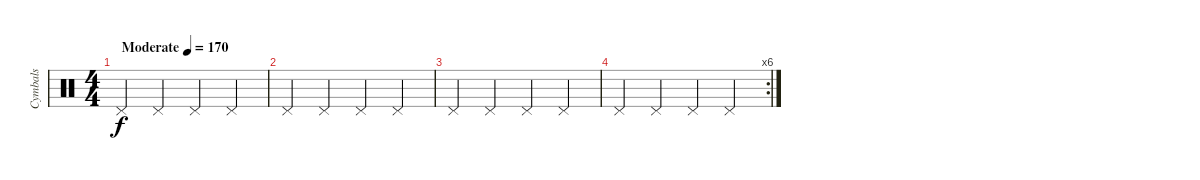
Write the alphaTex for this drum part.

\track ("Cymbals" "Cymbals") {instrument percussion}
\staff {score}
\articulation defaults
\ts (4 4)
\tempo (170 "Moderate")
\clef neutral
\ks c "Pedal Hi-Hat (hit)".4{dy f} "Pedal Hi-Hat (hit)".4 "Pedal Hi-Hat (hit)".4 "Pedal Hi-Hat (hit)".4
|
"Pedal Hi-Hat (hit)".4 "Pedal Hi-Hat (hit)".4 "Pedal Hi-Hat (hit)".4 "Pedal Hi-Hat (hit)".4 |
"Pedal Hi-Hat (hit)".4 "Pedal Hi-Hat (hit)".4 "Pedal Hi-Hat (hit)".4 "Pedal Hi-Hat (hit)".4 |
\rc 6 "Pedal Hi-Hat (hit)".4 "Pedal Hi-Hat (hit)".4 "Pedal Hi-Hat (hit)".4 "Pedal Hi-Hat (hit)".4
